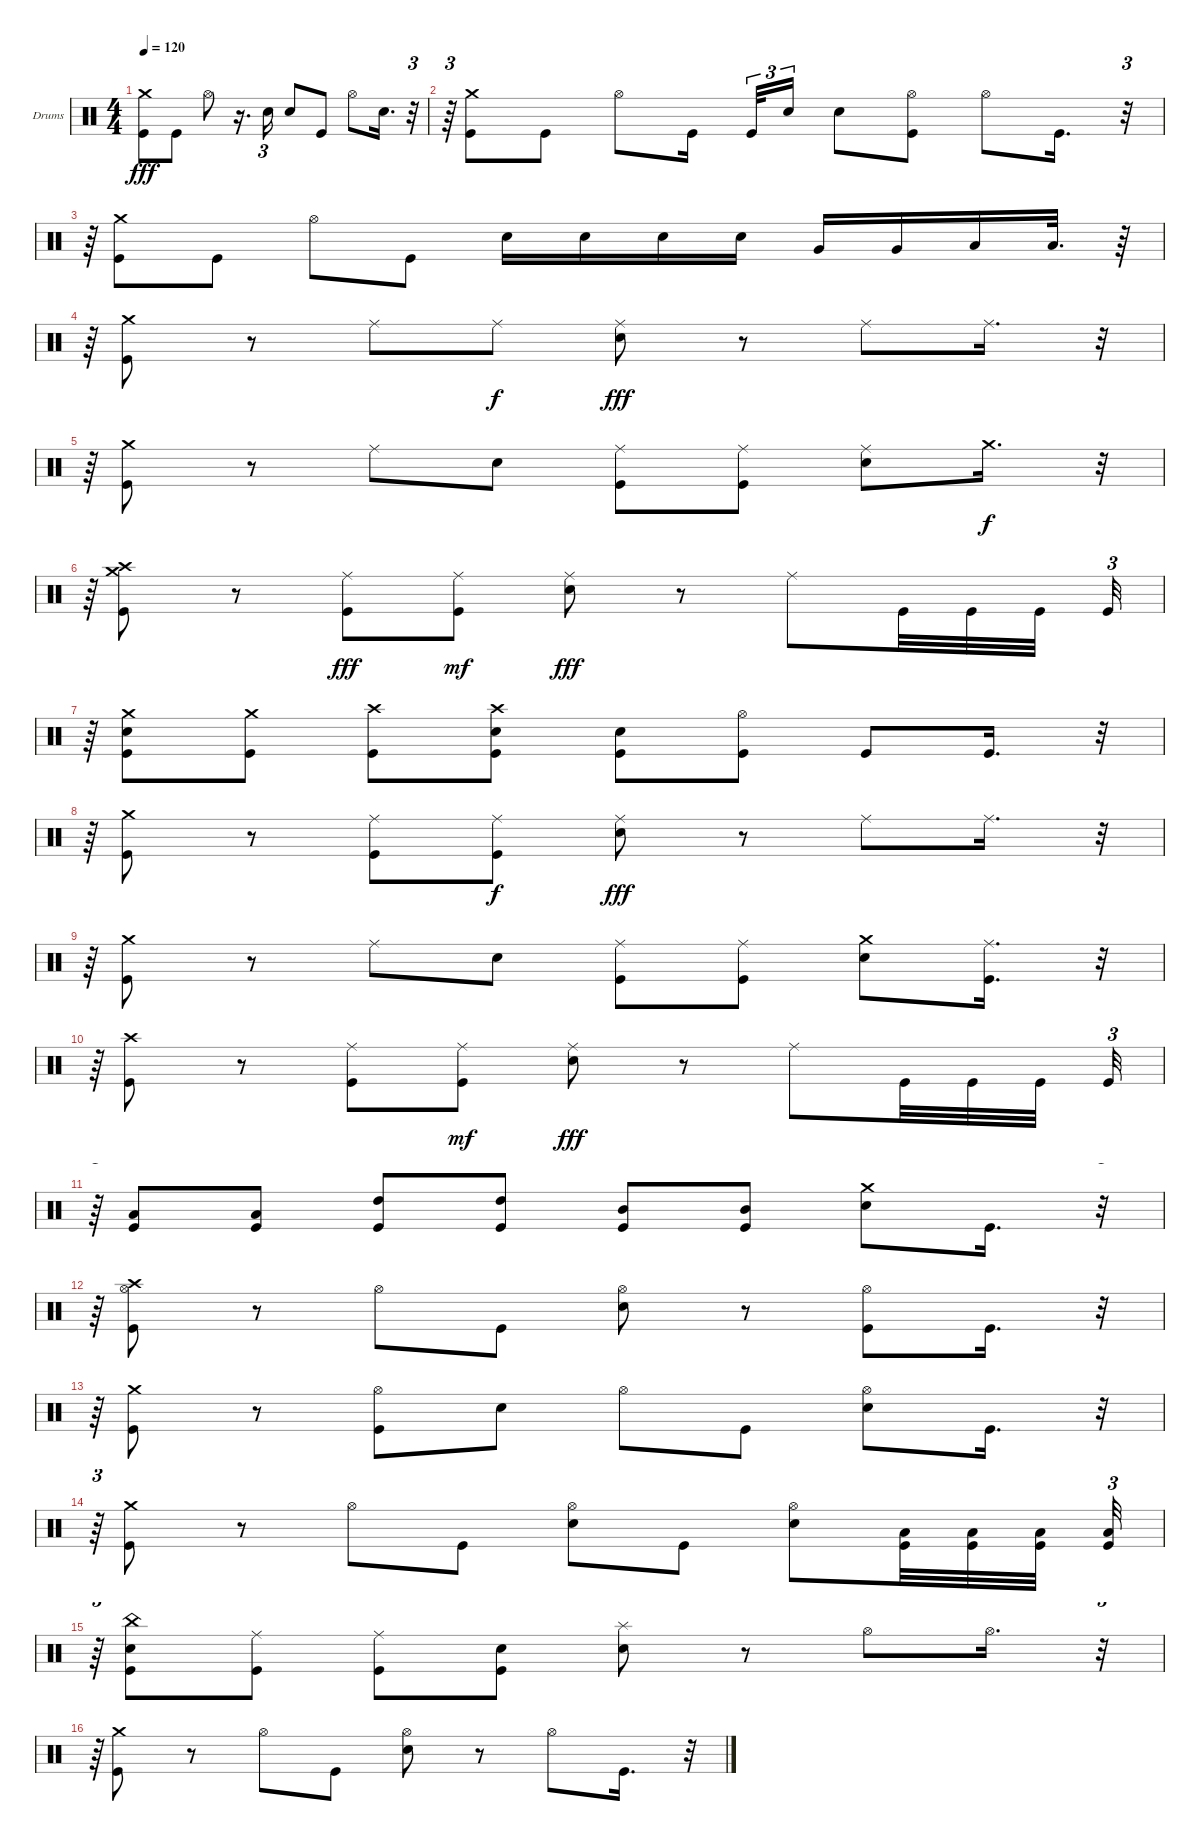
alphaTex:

\bracketExtendMode groupsimilarinstruments
\firstSystemTrackNameOrientation horizontal
\otherSystemsTrackNameOrientation horizontal
\track ("Drums" "Drums") {instrument percussion}
\staff {score}
\articulation defaults
\ts (4 4)
\tempo 120
\clef neutral
\ks c
("Crash medium (hit)" "Kick (hit)").8{dy fff} "Kick (hit)".8 "Hi-Hat (open)".8 r.16{d} "Snare (hit) 2".16{tu (3 2)} "Snare (hit) 2".8 "Kick (hit)".8 "Hi-Hat (open)".8 "Snare (hit) 2".16{d} r.32{tu (3 2)} |
r.64{tu (3 2)} ("Crash medium (hit)" "Kick (hit)").8 "Kick (hit)".8 "Hi-Hat (open)".8 "Kick (hit)".16 "Kick (hit)".32{tu (3 2)} "Snare (hit) 2".16{tu (3 2)} "Snare (hit) 2".8 ("Hi-Hat (open)" "Kick (hit)").8 "Hi-Hat (open)".8 "Kick (hit)".16{d} r.32{tu (3 2)} |
r.64{tu (3 2)} ("Crash medium (hit)" "Kick (hit)").8 "Kick (hit)".8 "Hi-Hat (open)".8 "Kick (hit)".8 "Snare (hit) 2".16 "Snare (hit) 2".16 "Snare (hit) 2".16 "Snare (hit) 2".16 "Very Low Tom (hit)".16 "Very Low Tom (hit)".16 "Low Tom (hit)".16 "Low Tom (hit)".32{d} r.64 |
r.64{tu (3 2)} ("Crash medium (hit)" "Kick (hit)").8 r.8 "Ride (middle)".8 "Ride (middle)".8{dy f} ("Ride (middle)" "Snare (hit) 2").8{dy fff} r.8 "Ride (middle)".8 "Ride (middle)".16{d} r.32{tu (3 2)} |
r.64{tu (3 2)} ("Kick (hit)" "Crash medium (hit)").8 r.8 "Ride (middle)".8 "Snare (hit) 2".8 ("Kick (hit)" "Ride (middle)").8 ("Kick (hit)" "Ride (middle)").8 ("Snare (hit) 2" "Ride (middle)").8 "Crash medium (hit)".16{d dy f} r.32{tu (3 2)} |
r.64{tu (3 2)} ("Crash high (hit)" "Kick (hit)" "Crash medium (hit)").8 r.8 ("Kick (hit)" "Ride (middle)").8{dy fff} ("Ride (middle)" "Kick (hit)").8{dy mf} ("Snare (hit) 2" "Ride (middle)").8{dy fff} r.8 "Ride (middle)".8 "Kick (hit)".32 "Kick (hit)".32 "Kick (hit)".32 "Kick (hit)".32{tu (3 2)} |
r.64{tu (3 2)} ("Kick (hit)" "Snare (hit) 2" "Crash medium (hit)").8 ("Kick (hit)" "Crash medium (hit)").8 ("Kick (hit)" "Crash high (hit)").8 ("Snare (hit) 2" "Kick (hit)" "Crash high (hit)").8 ("Snare (hit) 2" "Kick (hit)").8 ("Kick (hit)" "Hi-Hat (open)").8 "Kick (hit)".8 "Kick (hit)".16{d} r.32{tu (3 2)} |
r.64{tu (3 2)} ("Crash medium (hit)" "Kick (hit)").8 r.8 ("Ride (middle)" "Kick (hit)").8 ("Ride (middle)" "Kick (hit)").8{dy f} ("Ride (middle)" "Snare (hit) 2").8{dy fff} r.8 "Ride (middle)".8 "Ride (middle)".16{d} r.32{tu (3 2)} |
r.64{tu (3 2)} ("Kick (hit)" "Crash medium (hit)").8 r.8 "Ride (middle)".8 "Snare (hit) 2".8 ("Kick (hit)" "Ride (middle)").8 ("Kick (hit)" "Ride (middle)").8 ("Snare (hit) 2" "Crash medium (hit)").8 ("Kick (hit)" "Ride (middle)").16{d} r.32{tu (3 2)} |
r.64{tu (3 2)} ("Kick (hit)" "Crash high (hit)").8 r.8 ("Ride (middle)" "Kick (hit)").8 ("Ride (middle)" "Kick (hit)").8{dy mf} ("Snare (hit) 2" "Ride (middle)").8{dy fff} r.8 "Ride (middle)".8 "Kick (hit)".32 "Kick (hit)".32 "Kick (hit)".32 "Kick (hit)".32{tu (3 2)} |
r.64{tu (3 2)} ("Low Tom (hit)" "Kick (hit)").8 ("Low Tom (hit)" "Kick (hit)").8 ("High Tom (hit)" "Kick (hit)").8 ("High Tom (hit)" "Kick (hit)").8 ("Mid Tom (hit)" "Kick (hit)").8 ("Mid Tom (hit)" "Kick (hit)").8 ("Crash medium (hit)" "Snare (hit) 2").8 "Kick (hit)".16{d} r.32{tu (3 2)} |
r.64{tu (3 2)} ("Hi-Hat (open)" "Kick (hit)" "Crash high (hit)").8 r.8 "Hi-Hat (open)".8 "Kick (hit)".8 ("Hi-Hat (open)" "Snare (hit) 2").8 r.8 ("Hi-Hat (open)" "Kick (hit)").8 "Kick (hit)".16{d} r.32{tu (3 2)} |
r.64{tu (3 2)} ("Kick (hit)" "Crash medium (hit)").8 r.8 ("Hi-Hat (open)" "Kick (hit)").8 "Snare (hit) 2".8 "Hi-Hat (open)".8 "Kick (hit)".8 ("Hi-Hat (open)" "Snare (hit) 2").8 "Kick (hit)".16{d} r.32{tu (3 2)} |
r.64{tu (3 2)} ("Kick (hit)" "Crash medium (hit)").8 r.8 "Hi-Hat (open)".8 "Kick (hit)".8 ("Snare (hit) 2" "Hi-Hat (open)").8 "Kick (hit)".8 ("Snare (hit) 2" "Hi-Hat (open)").8 ("Kick (hit)" "Low Tom (hit)").32 ("Kick (hit)" "Low Tom (hit)").32 ("Kick (hit)" "Low Tom (hit)").32 ("Kick (hit)" "Low Tom (hit)").32{tu (3 2)} |
r.64{tu (3 2)} ("China (hit)" "Snare (hit) 2" "Kick (hit)").8 ("Ride (middle)" "Kick (hit)").8 ("Ride (middle)" "Kick (hit)").8 ("Snare (hit) 2" "Kick (hit)").8 ("Splash (hit)" "Snare (hit) 2").8 r.8 "Hi-Hat (open)".8 "Hi-Hat (open)".16{d} r.32{tu (3 2)} |
r.64{tu (3 2)} ("Crash medium (hit)" "Kick (hit)").8 r.8 "Hi-Hat (open)".8 "Kick (hit)".8 ("Hi-Hat (open)" "Snare (hit) 2").8 r.8 "Hi-Hat (open)".8 "Kick (hit)".16{d} r.32{tu (3 2)}
